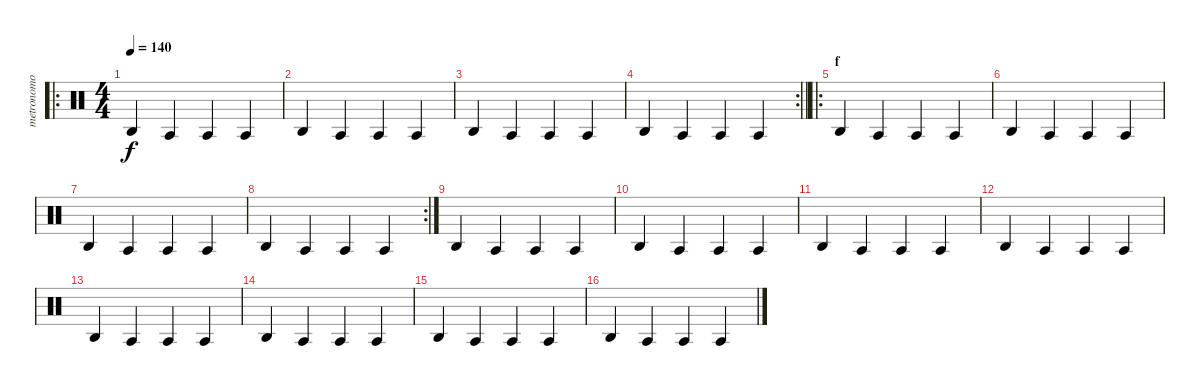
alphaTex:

\track ("metronomo" "metronomo") {mute instrument percussion}
\staff {score}
\articulation defaults
\ro
\ts (4 4)
\tempo 140
\clef neutral
\ks c "Agogo high (hit)".4{dy f} "Agogo tow (hit)".4 "Agogo tow (hit)".4 "Agogo tow (hit)".4
|
"Agogo high (hit)".4 "Agogo tow (hit)".4 "Agogo tow (hit)".4 "Agogo tow (hit)".4 |
"Agogo high (hit)".4 "Agogo tow (hit)".4 "Agogo tow (hit)".4 "Agogo tow (hit)".4 |
\rc 2
\barLineRight lightlight "Agogo high (hit)".4 "Agogo tow (hit)".4 "Agogo tow (hit)".4 "Agogo tow (hit)".4
|
\ro
\section ("" "f")
"Agogo high (hit)".4 "Agogo tow (hit)".4 "Agogo tow (hit)".4 "Agogo tow (hit)".4 |
"Agogo high (hit)".4 "Agogo tow (hit)".4 "Agogo tow (hit)".4 "Agogo tow (hit)".4 |
"Agogo high (hit)".4 "Agogo tow (hit)".4 "Agogo tow (hit)".4 "Agogo tow (hit)".4 |
\rc 2 "Agogo high (hit)".4 "Agogo tow (hit)".4 "Agogo tow (hit)".4 "Agogo tow (hit)".4
|
"Agogo high (hit)".4 "Agogo tow (hit)".4 "Agogo tow (hit)".4 "Agogo tow (hit)".4 |
"Agogo high (hit)".4 "Agogo tow (hit)".4 "Agogo tow (hit)".4 "Agogo tow (hit)".4 |
"Agogo high (hit)".4 "Agogo tow (hit)".4 "Agogo tow (hit)".4 "Agogo tow (hit)".4 |
"Agogo high (hit)".4 "Agogo tow (hit)".4 "Agogo tow (hit)".4 "Agogo tow (hit)".4 |
"Agogo high (hit)".4 "Agogo tow (hit)".4 "Agogo tow (hit)".4 "Agogo tow (hit)".4 |
"Agogo high (hit)".4 "Agogo tow (hit)".4 "Agogo tow (hit)".4 "Agogo tow (hit)".4 |
"Agogo high (hit)".4 "Agogo tow (hit)".4 "Agogo tow (hit)".4 "Agogo tow (hit)".4 |
"Agogo high (hit)".4 "Agogo tow (hit)".4 "Agogo tow (hit)".4 "Agogo tow (hit)".4
